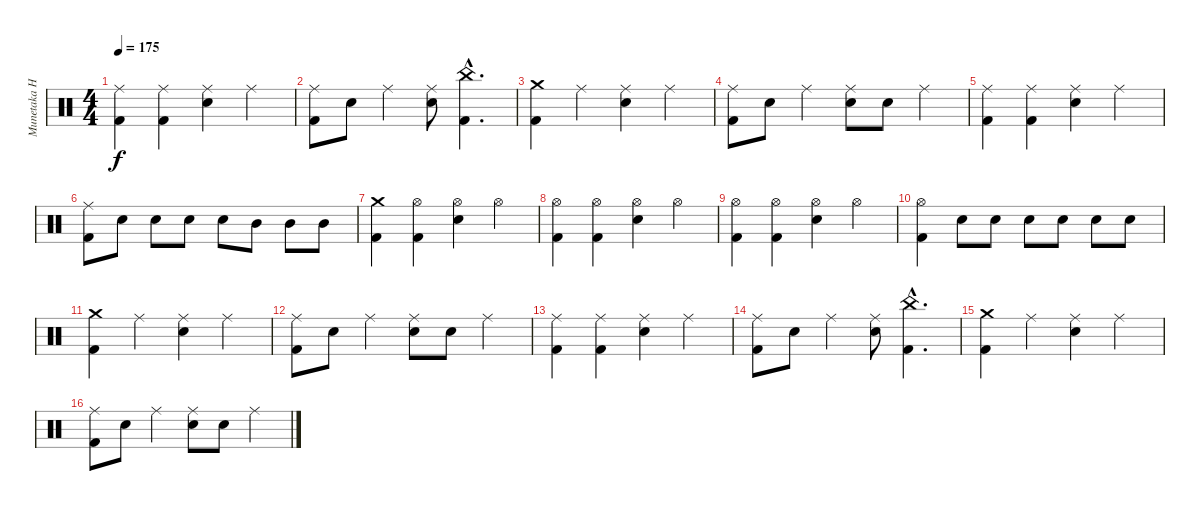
\track ("Munetaka Higuchi" "Munetaka H") {instrument percussion}
\staff {score}
\articulation defaults
\ts (4 4)
\tempo 175
\clef neutral
\ks c
("Ride (middle)" "Kick (hit) 2").4{dy f} ("Ride (middle)" "Kick (hit) 2").4 ("Ride (middle)" "Electric Snare (hit)").4 "Ride (middle)".4 |
("Ride (middle)" "Kick (hit) 2").8 "Electric Snare (hit)".8 "Ride (middle)".4 ("Ride (middle)" "Electric Snare (hit)").8 ("China (hit)"{hac} "Kick (hit) 2"{hac}).4{d} |
("Crash medium (hit)" "Kick (hit) 2").4 "Ride (middle)".4 ("Ride (middle)" "Electric Snare (hit)").4 "Ride (middle)".4 |
("Ride (middle)" "Kick (hit) 2").8 "Electric Snare (hit)".8 "Ride (middle)".4 ("Ride (middle)" "Electric Snare (hit)").8 "Electric Snare (hit)".8 "Ride (middle)".4 |
("Ride (middle)" "Kick (hit) 2").4 ("Ride (middle)" "Kick (hit) 2").4 ("Ride (middle)" "Electric Snare (hit)").4 "Ride (middle)".4 |
("Ride (middle)" "Kick (hit) 2").8 "Electric Snare (hit)".8 "Electric Snare (hit)".8 "Electric Snare (hit)".8 "Electric Snare (hit)".8 "Mid Tom (hit)".8 "Mid Tom (hit)".8 "Mid Tom (hit)".8 |
("Crash medium (hit)" "Kick (hit) 2").4 ("Hi-Hat (open)" "Kick (hit) 2").4 ("Hi-Hat (open)" "Electric Snare (hit)").4 "Hi-Hat (open)".4 |
("Hi-Hat (open)" "Kick (hit) 2").4 ("Hi-Hat (open)" "Kick (hit) 2").4 ("Hi-Hat (open)" "Electric Snare (hit)").4 "Hi-Hat (open)".4 |
("Hi-Hat (open)" "Kick (hit) 2").4 ("Hi-Hat (open)" "Kick (hit) 2").4 ("Hi-Hat (open)" "Electric Snare (hit)").4 "Hi-Hat (open)".4 |
("Hi-Hat (open)" "Kick (hit) 2").4 "Electric Snare (hit)".8 "Electric Snare (hit)".8 "Electric Snare (hit)".8 "Electric Snare (hit)".8 "Electric Snare (hit)".8 "Electric Snare (hit)".8 |
("Crash medium (hit)" "Kick (hit) 2").4 "Ride (middle)".4 ("Ride (middle)" "Electric Snare (hit)").4 "Ride (middle)".4 |
("Ride (middle)" "Kick (hit) 2").8 "Electric Snare (hit)".8 "Ride (middle)".4 ("Ride (middle)" "Electric Snare (hit)").8 "Electric Snare (hit)".8 "Ride (middle)".4 |
("Ride (middle)" "Kick (hit) 2").4 ("Ride (middle)" "Kick (hit) 2").4 ("Ride (middle)" "Electric Snare (hit)").4 "Ride (middle)".4 |
("Ride (middle)" "Kick (hit) 2").8 "Electric Snare (hit)".8 "Ride (middle)".4 ("Ride (middle)" "Electric Snare (hit)").8 ("China (hit)"{hac} "Kick (hit) 2"{hac}).4{d} |
("Crash medium (hit)" "Kick (hit) 2").4 "Ride (middle)".4 ("Ride (middle)" "Electric Snare (hit)").4 "Ride (middle)".4 |
("Ride (middle)" "Kick (hit) 2").8 "Electric Snare (hit)".8 "Ride (middle)".4 ("Ride (middle)" "Electric Snare (hit)").8 "Electric Snare (hit)".8 "Ride (middle)".4
